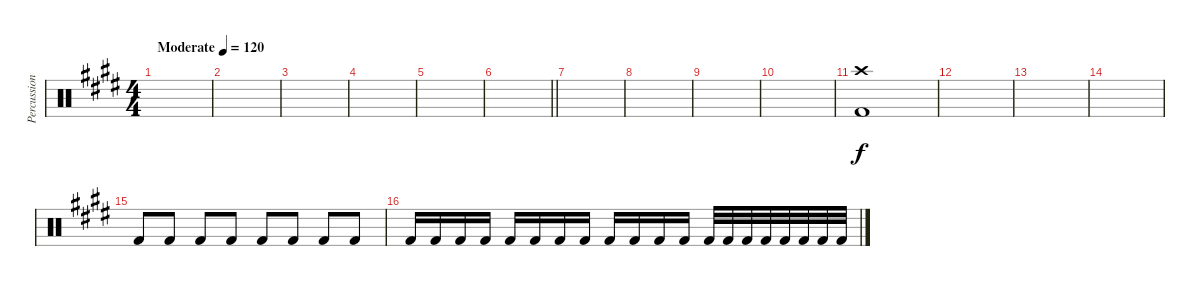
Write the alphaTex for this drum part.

\track ("Percussion" "Percussion") {instrument percussion}
\staff {score}
\articulation defaults
\ts (4 4)
\tempo (120 "Moderate")
\clef neutral
\ks e
|
|
|
|
|
\barLineRight lightlight
|
|
|
|
|
("Crash high (hit)" "Kick (hit) 2").1 |
|
|
|
"Kick (hit) 2".8 "Kick (hit) 2".8 "Kick (hit) 2".8 "Kick (hit) 2".8 "Kick (hit) 2".8 "Kick (hit) 2".8 "Kick (hit) 2".8 "Kick (hit) 2".8 |
"Kick (hit) 2".16 "Kick (hit) 2".16 "Kick (hit) 2".16 "Kick (hit) 2".16 "Kick (hit) 2".16 "Kick (hit) 2".16 "Kick (hit) 2".16 "Kick (hit) 2".16 "Kick (hit) 2".16 "Kick (hit) 2".16 "Kick (hit) 2".16 "Kick (hit) 2".16 "Kick (hit) 2".32 "Kick (hit) 2".32 "Kick (hit) 2".32 "Kick (hit) 2".32 "Kick (hit) 2".32 "Kick (hit) 2".32 "Kick (hit) 2".32 "Kick (hit) 2".32
